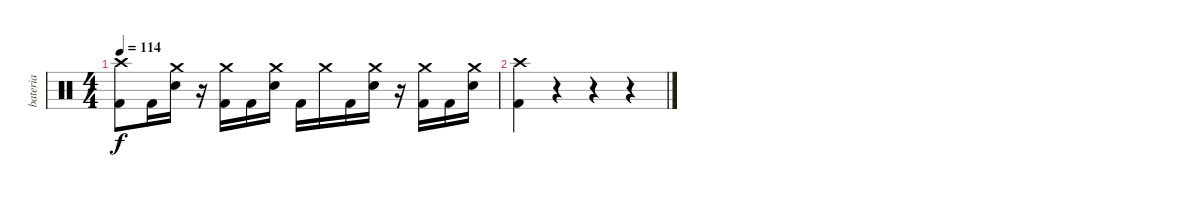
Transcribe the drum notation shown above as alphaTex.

\track ("bateria" "bateria") {instrument percussion}
\staff {score}
\articulation defaults
\ts (4 4)
\tempo 114
\clef neutral
\ks c
("Crash high (hit)" "Kick (hit) 2").8{dy f} "Kick (hit) 2".16 ("Crash medium (hit)" "Electric Snare (hit)").16 r.16 ("Crash medium (hit)" "Kick (hit) 2").16 "Kick (hit) 2".16 ("Crash medium (hit)" "Electric Snare (hit)").16 "Kick (hit) 2".16 "Crash medium (hit)".16 "Kick (hit) 2".16 ("Crash medium (hit)" "Electric Snare (hit)").16 r.16 ("Crash medium (hit)" "Kick (hit) 2").16 "Kick (hit) 2".16 ("Crash medium (hit)" "Electric Snare (hit)").16 |
("Crash high (hit)" "Kick (hit) 2").4 r.4 r.4 r.4
